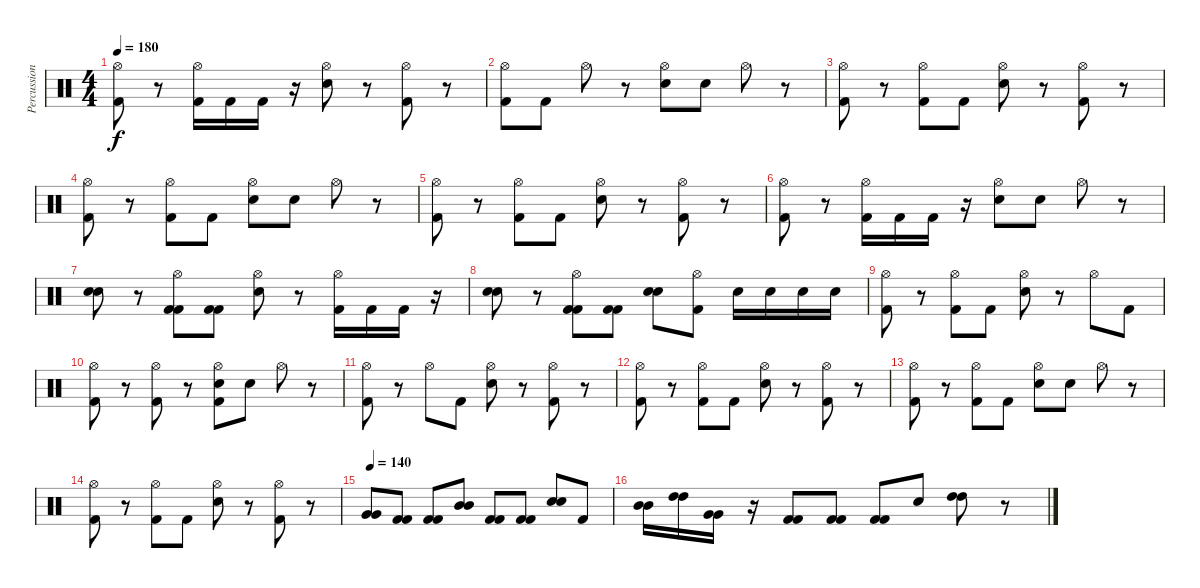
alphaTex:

\track ("Percussion" "Percussion") {instrument percussion}
\staff {score}
\articulation defaults
\ts (4 4)
\tempo 180
\clef neutral
\ks c
("Hi-Hat (open)" "Kick (hit) 2").8{dy f} r.8 ("Hi-Hat (open)" "Kick (hit) 2").16 "Kick (hit) 2".16 "Kick (hit) 2".16 r.16 ("Hi-Hat (open)" "Snare (hit) 2").8 r.8 ("Hi-Hat (open)" "Kick (hit) 2").8 r.8 |
("Hi-Hat (open)" "Kick (hit) 2").8 "Kick (hit) 2".8 "Hi-Hat (open)".8 r.8 ("Hi-Hat (open)" "Snare (hit) 2").8 "Snare (hit) 2".8 "Hi-Hat (open)".8 r.8 |
("Hi-Hat (open)" "Kick (hit) 2").8 r.8 ("Hi-Hat (open)" "Kick (hit) 2").8 "Kick (hit) 2".8 ("Hi-Hat (open)" "Snare (hit) 2").8 r.8 ("Hi-Hat (open)" "Kick (hit) 2").8 r.8 |
("Hi-Hat (open)" "Kick (hit) 2").8 r.8 ("Hi-Hat (open)" "Kick (hit) 2").8 "Kick (hit) 2".8 ("Hi-Hat (open)" "Snare (hit) 2").8 "Snare (hit) 2".8 "Hi-Hat (open)".8 r.8 |
("Hi-Hat (open)" "Kick (hit) 2").8 r.8 ("Hi-Hat (open)" "Kick (hit) 2").8 "Kick (hit) 2".8 ("Hi-Hat (open)" "Snare (hit) 2").8 r.8 ("Hi-Hat (open)" "Kick (hit) 2").8 r.8 |
("Hi-Hat (open)" "Kick (hit) 2").8 r.8 ("Hi-Hat (open)" "Kick (hit) 2").16 "Kick (hit) 2".16 "Kick (hit) 2".16 r.16 ("Hi-Hat (open)" "Snare (hit) 2").8 "Snare (hit) 2".8 "Hi-Hat (open)".8 r.8 |
("Snare (hit) 2" "Snare (hit) 2").8 r.8 ("Hi-Hat (open)" "Kick (hit) 2" "Kick (hit) 2").8 ("Kick (hit) 2" "Kick (hit) 2").8 ("Hi-Hat (open)" "Snare (hit) 2").8 r.8 ("Hi-Hat (open)" "Kick (hit) 2").16 "Kick (hit) 2".16 "Kick (hit) 2".16 r.16 |
("Snare (hit) 2" "Snare (hit) 2").8 r.8 ("Hi-Hat (open)" "Kick (hit) 2" "Kick (hit) 2").8 ("Kick (hit) 2" "Kick (hit) 2").8 ("Snare (hit) 2" "Snare (hit) 2").8 ("Hi-Hat (open)" "Kick (hit) 2").8 "Snare (hit) 2".16 "Snare (hit) 2".16 "Snare (hit) 2".16 "Snare (hit) 2".16 |
("Hi-Hat (open)" "Kick (hit) 2").8 r.8 ("Hi-Hat (open)" "Kick (hit) 2").8 "Kick (hit) 2".8 ("Hi-Hat (open)" "Snare (hit) 2").8 r.8 "Hi-Hat (open)".8 "Kick (hit) 2".8 |
("Hi-Hat (open)" "Kick (hit) 2").8 r.8 ("Hi-Hat (open)" "Kick (hit) 2").8 r.8 ("Hi-Hat (open)" "Snare (hit) 2" "Kick (hit) 2").8 "Snare (hit) 2".8 "Hi-Hat (open)".8 r.8 |
("Hi-Hat (open)" "Kick (hit) 2").8 r.8 "Hi-Hat (open)".8 "Kick (hit) 2".8 ("Hi-Hat (open)" "Snare (hit) 2").8 r.8 ("Hi-Hat (open)" "Kick (hit) 2").8 r.8 |
("Hi-Hat (open)" "Kick (hit) 2").8 r.8 ("Hi-Hat (open)" "Kick (hit) 2").8 "Kick (hit) 2".8 ("Hi-Hat (open)" "Snare (hit) 2").8 r.8 ("Hi-Hat (open)" "Kick (hit) 2").8 r.8 |
("Hi-Hat (open)" "Kick (hit) 2").8 r.8 ("Hi-Hat (open)" "Kick (hit) 2").8 "Kick (hit) 2".8 ("Hi-Hat (open)" "Snare (hit) 2").8 "Snare (hit) 2".8 "Hi-Hat (open)".8 r.8 |
("Hi-Hat (open)" "Kick (hit) 2").8 r.8 ("Hi-Hat (open)" "Kick (hit) 2").8 "Kick (hit) 2".8 ("Hi-Hat (open)" "Snare (hit) 2").8 r.8 ("Hi-Hat (open)" "Kick (hit) 2").8 r.8 |
\tempo 140
("Very Low Tom (hit)" "Very Low Tom (hit)").8 ("Kick (hit) 2" "Kick (hit) 2").8 ("Kick (hit) 2" "Kick (hit) 2").8 ("Mid Tom (hit)" "Mid Tom (hit)").8 ("Kick (hit) 2" "Kick (hit) 2").8 ("Kick (hit) 2" "Kick (hit) 2").8 ("Snare (hit) 2" "Snare (hit) 2").8 "Kick (hit) 2".8 |
("Mid Tom (hit)" "Mid Tom (hit)").16 ("High Tom (hit)" "High Tom (hit)").16 ("Very Low Tom (hit)" "Very Low Tom (hit)").16 r.16 ("Kick (hit) 2" "Kick (hit) 2").8 ("Kick (hit) 2" "Kick (hit) 2").8 ("Kick (hit) 2" "Kick (hit) 2").8 "Snare (hit) 2".8 ("High Tom (hit)" "High Tom (hit)").8 r.8
